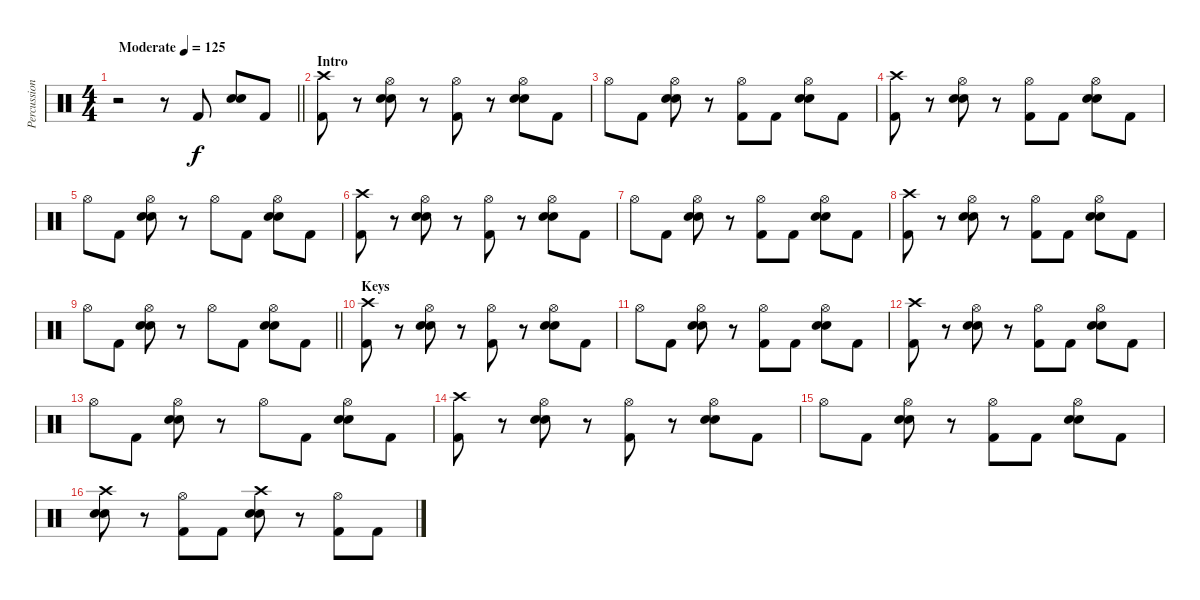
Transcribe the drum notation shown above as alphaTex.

\track ("Percussion" "Percussion") {instrument percussion}
\staff {score}
\articulation defaults
\ts (4 4)
\tempo (125 "Moderate")
\clef neutral
\barLineRight lightlight
\ks c
r.2{dy f} r.8 "Kick (hit) 2".8 ("Snare (hit) 2" "Electric Snare (hit)").8 "Kick (hit) 2".8 |
\section ("" "Intro")
("Crash high (hit)" "Kick (hit) 2").8 r.8 ("Hi-Hat (open)" "Snare (hit) 2" "Electric Snare (hit)").8 r.8 ("Hi-Hat (open)" "Kick (hit) 2").8 r.8 ("Hi-Hat (open)" "Snare (hit) 2" "Electric Snare (hit)").8 "Kick (hit) 2".8 |
"Hi-Hat (open)".8 "Kick (hit) 2".8 ("Hi-Hat (open)" "Snare (hit) 2" "Electric Snare (hit)").8 r.8 ("Hi-Hat (open)" "Kick (hit) 2").8 "Kick (hit) 2".8 ("Hi-Hat (open)" "Snare (hit) 2" "Electric Snare (hit)").8 "Kick (hit) 2".8 |
("Crash high (hit)" "Kick (hit) 2").8 r.8 ("Hi-Hat (open)" "Snare (hit) 2" "Electric Snare (hit)").8 r.8 ("Hi-Hat (open)" "Kick (hit) 2").8 "Kick (hit) 2".8 ("Hi-Hat (open)" "Snare (hit) 2" "Electric Snare (hit)").8 "Kick (hit) 2".8 |
"Hi-Hat (open)".8 "Kick (hit) 2".8 ("Hi-Hat (open)" "Snare (hit) 2" "Electric Snare (hit)").8 r.8 "Hi-Hat (open)".8 "Kick (hit) 2".8 ("Hi-Hat (open)" "Snare (hit) 2" "Electric Snare (hit)").8 "Kick (hit) 2".8 |
("Crash high (hit)" "Kick (hit) 2").8 r.8 ("Hi-Hat (open)" "Snare (hit) 2" "Electric Snare (hit)").8 r.8 ("Hi-Hat (open)" "Kick (hit) 2").8 r.8 ("Hi-Hat (open)" "Snare (hit) 2" "Electric Snare (hit)").8 "Kick (hit) 2".8 |
"Hi-Hat (open)".8 "Kick (hit) 2".8 ("Hi-Hat (open)" "Snare (hit) 2" "Electric Snare (hit)").8 r.8 ("Hi-Hat (open)" "Kick (hit) 2").8 "Kick (hit) 2".8 ("Hi-Hat (open)" "Snare (hit) 2" "Electric Snare (hit)").8 "Kick (hit) 2".8 |
("Crash high (hit)" "Kick (hit) 2").8 r.8 ("Hi-Hat (open)" "Snare (hit) 2" "Electric Snare (hit)").8 r.8 ("Hi-Hat (open)" "Kick (hit) 2").8 "Kick (hit) 2".8 ("Hi-Hat (open)" "Snare (hit) 2" "Electric Snare (hit)").8 "Kick (hit) 2".8 |
\barLineRight lightlight "Hi-Hat (open)".8 "Kick (hit) 2".8
("Hi-Hat (open)" "Snare (hit) 2" "Electric Snare (hit)").8 r.8 "Hi-Hat (open)".8 "Kick (hit) 2".8 ("Hi-Hat (open)" "Snare (hit) 2" "Electric Snare (hit)").8 "Kick (hit) 2".8 |
\section ("" "Keys")
("Crash high (hit)" "Kick (hit) 2").8 r.8 ("Hi-Hat (open)" "Snare (hit) 2" "Electric Snare (hit)").8 r.8 ("Hi-Hat (open)" "Kick (hit) 2").8 r.8 ("Hi-Hat (open)" "Snare (hit) 2" "Electric Snare (hit)").8 "Kick (hit) 2".8 |
"Hi-Hat (open)".8 "Kick (hit) 2".8 ("Hi-Hat (open)" "Snare (hit) 2" "Electric Snare (hit)").8 r.8 ("Hi-Hat (open)" "Kick (hit) 2").8 "Kick (hit) 2".8 ("Hi-Hat (open)" "Snare (hit) 2" "Electric Snare (hit)").8 "Kick (hit) 2".8 |
("Crash high (hit)" "Kick (hit) 2").8 r.8 ("Hi-Hat (open)" "Snare (hit) 2" "Electric Snare (hit)").8 r.8 ("Hi-Hat (open)" "Kick (hit) 2").8 "Kick (hit) 2".8 ("Hi-Hat (open)" "Snare (hit) 2" "Electric Snare (hit)").8 "Kick (hit) 2".8 |
"Hi-Hat (open)".8 "Kick (hit) 2".8 ("Hi-Hat (open)" "Snare (hit) 2" "Electric Snare (hit)").8 r.8 "Hi-Hat (open)".8 "Kick (hit) 2".8 ("Hi-Hat (open)" "Snare (hit) 2" "Electric Snare (hit)").8 "Kick (hit) 2".8 |
("Crash high (hit)" "Kick (hit) 2").8 r.8 ("Hi-Hat (open)" "Snare (hit) 2" "Electric Snare (hit)").8 r.8 ("Hi-Hat (open)" "Kick (hit) 2").8 r.8 ("Hi-Hat (open)" "Snare (hit) 2" "Electric Snare (hit)").8 "Kick (hit) 2".8 |
"Hi-Hat (open)".8 "Kick (hit) 2".8 ("Hi-Hat (open)" "Snare (hit) 2" "Electric Snare (hit)").8 r.8 ("Hi-Hat (open)" "Kick (hit) 2").8 "Kick (hit) 2".8 ("Hi-Hat (open)" "Snare (hit) 2" "Electric Snare (hit)").8 "Kick (hit) 2".8 |
("Crash high (hit)" "Snare (hit) 2" "Electric Snare (hit)").8 r.8 ("Hi-Hat (open)" "Kick (hit) 2").8 "Kick (hit) 2".8 ("Crash high (hit)" "Electric Snare (hit)" "Snare (hit) 2").8 r.8 ("Hi-Hat (open)" "Kick (hit) 2").8 "Kick (hit) 2".8
